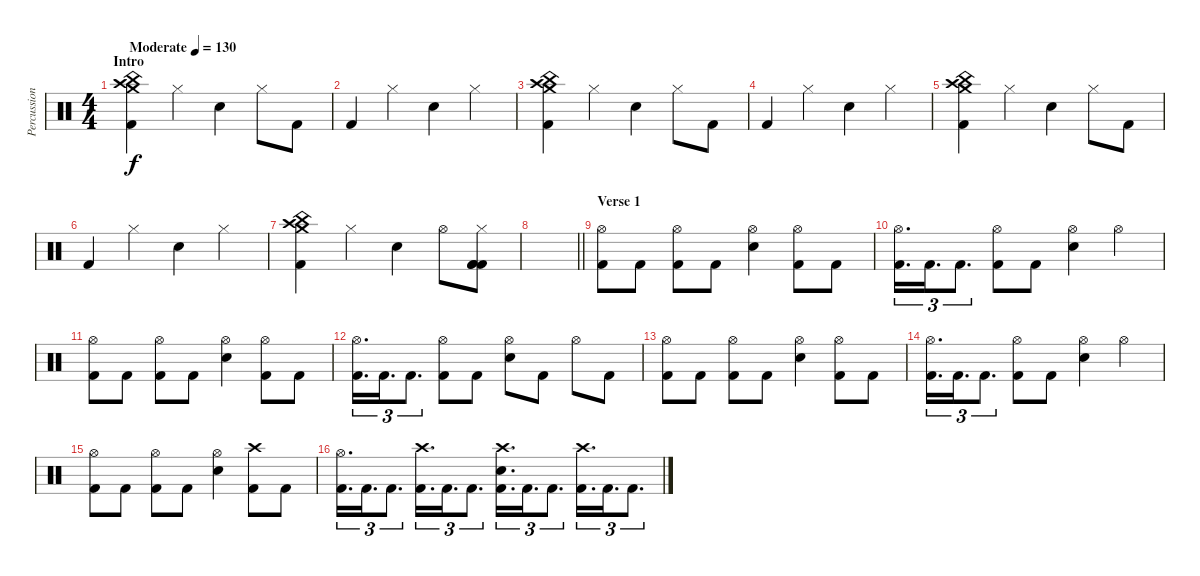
\track ("Percussion" "Percussion") {instrument percussion}
\staff {score}
\articulation defaults
\ts (4 4)
\section ("" "Intro")
\tempo (130 "Moderate")
\clef neutral
\ks c
("Crash medium (hit)" "China (hit)" "Crash high (hit)" "Kick (hit) 2").4{dy f volume 11} "Hi-Hat (closed)".4 "Electric Snare (hit)".4 "Hi-Hat (closed)".8 "Kick (hit) 2".8 |
"Kick (hit) 2".4 "Hi-Hat (closed)".4 "Electric Snare (hit)".4 "Hi-Hat (closed)".4 |
("Crash medium (hit)" "China (hit)" "Crash high (hit)" "Kick (hit) 2").4 "Hi-Hat (closed)".4 "Electric Snare (hit)".4 "Hi-Hat (closed)".8 "Kick (hit) 2".8 |
"Kick (hit) 2".4 "Hi-Hat (closed)".4 "Electric Snare (hit)".4 "Hi-Hat (closed)".4 |
("Crash medium (hit)" "China (hit)" "Crash high (hit)" "Kick (hit) 2").4 "Hi-Hat (closed)".4 "Electric Snare (hit)".4 "Hi-Hat (closed)".8 "Kick (hit) 2".8 |
"Kick (hit) 2".4 "Hi-Hat (closed)".4 "Electric Snare (hit)".4 "Hi-Hat (closed)".4 |
("Crash medium (hit)" "Crash high (hit)" "China (hit)" "Kick (hit) 2").4 "Hi-Hat (closed)".4 "Electric Snare (hit)".4 "Hi-Hat (open)".8 ("Hi-Hat (closed)" "Kick (hit) 2" "Kick (hit) 2" "Kick (hit) 2").8 |
\barLineRight lightlight
|
\section ("" "Verse 1")
("Hi-Hat (open)" "Kick (hit) 2").8{volume 13} "Kick (hit) 2".8 ("Hi-Hat (open)" "Kick (hit) 2").8 "Kick (hit) 2".8 ("Hi-Hat (open)" "Electric Snare (hit)").4 ("Hi-Hat (open)" "Kick (hit) 2").8 "Kick (hit) 2".8 |
("Hi-Hat (open)" "Kick (hit) 2").16{d tu (3 2)} "Kick (hit) 2".16{d tu (3 2)} "Kick (hit) 2".8{d tu (3 2) beam split} ("Hi-Hat (open)" "Kick (hit) 2").8{beam merge} "Kick (hit) 2".8 ("Hi-Hat (open)" "Electric Snare (hit)").4 "Hi-Hat (open)".4 |
("Hi-Hat (open)" "Kick (hit) 2").8{volume 13} "Kick (hit) 2".8 ("Hi-Hat (open)" "Kick (hit) 2").8 "Kick (hit) 2".8 ("Hi-Hat (open)" "Electric Snare (hit)").4 ("Hi-Hat (open)" "Kick (hit) 2").8 "Kick (hit) 2".8 |
("Hi-Hat (open)" "Kick (hit) 2").16{d tu (3 2)} "Kick (hit) 2".16{d tu (3 2)} "Kick (hit) 2".8{d tu (3 2) beam split} ("Hi-Hat (open)" "Kick (hit) 2").8{beam merge} "Kick (hit) 2".8 ("Hi-Hat (open)" "Electric Snare (hit)").8 "Kick (hit) 2".8 "Hi-Hat (open)".8 "Kick (hit) 2".8 |
("Hi-Hat (open)" "Kick (hit) 2").8{volume 13} "Kick (hit) 2".8 ("Hi-Hat (open)" "Kick (hit) 2").8 "Kick (hit) 2".8 ("Hi-Hat (open)" "Electric Snare (hit)").4 ("Hi-Hat (open)" "Kick (hit) 2").8 "Kick (hit) 2".8 |
("Hi-Hat (open)" "Kick (hit) 2").16{d tu (3 2)} "Kick (hit) 2".16{d tu (3 2)} "Kick (hit) 2".8{d tu (3 2) beam split} ("Hi-Hat (open)" "Kick (hit) 2").8{beam merge} "Kick (hit) 2".8 ("Hi-Hat (open)" "Electric Snare (hit)").4 "Hi-Hat (open)".4 |
("Hi-Hat (open)" "Kick (hit) 2").8{volume 13} "Kick (hit) 2".8 ("Hi-Hat (open)" "Kick (hit) 2").8 "Kick (hit) 2".8 ("Hi-Hat (open)" "Electric Snare (hit)").4 ("Crash high (hit)" "Kick (hit) 2").8 "Kick (hit) 2".8 |
("Hi-Hat (open)" "Kick (hit) 2").16{d tu (3 2)} "Kick (hit) 2".16{d tu (3 2)} "Kick (hit) 2".8{d tu (3 2)} ("Crash high (hit)" "Kick (hit) 2").16{d tu (3 2)} "Kick (hit) 2".16{d tu (3 2)} "Kick (hit) 2".8{d tu (3 2)} ("Crash high (hit)" "Electric Snare (hit)" "Kick (hit) 2").16{d tu (3 2)} "Kick (hit) 2".16{d tu (3 2)} "Kick (hit) 2".8{d tu (3 2)} ("Crash high (hit)" "Kick (hit) 2").16{d tu (3 2)} "Kick (hit) 2".16{d tu (3 2)} "Kick (hit) 2".8{d tu (3 2)}
